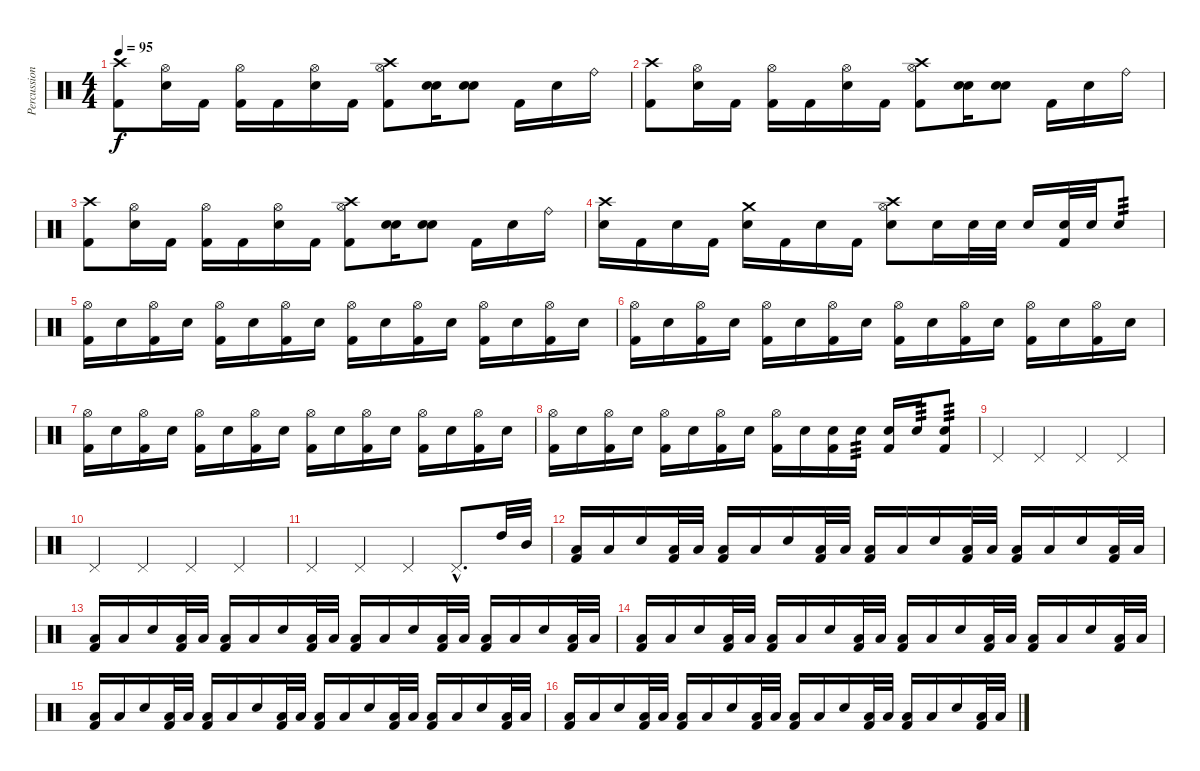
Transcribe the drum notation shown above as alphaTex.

\track ("Percussion" "Percussion") {instrument percussion}
\staff {score}
\articulation defaults
\ts (4 4)
\tempo 95
\clef neutral
\ks c
("Crash high (hit)" "Kick (hit) 2").8{dy f} ("Hi-Hat (open)" "Snare (hit) 2").16 "Kick (hit) 2".16 ("Hi-Hat (open)" "Kick (hit) 2").16 "Kick (hit) 2".16 ("Hi-Hat (open)" "Snare (hit) 2").16 "Kick (hit) 2".16 ("Crash high (hit)" "Hi-Hat (open)" "Kick (hit) 2").8 ("Snare (hit) 2" "Snare (hit) 2").16 ("Snare (hit) 2" "Snare (hit) 2").8 "Kick (hit) 2".16 "Snare (hit) 2".16 "Ride (bell)".16 |
("Crash high (hit)" "Kick (hit) 2").8 ("Hi-Hat (open)" "Snare (hit) 2").16 "Kick (hit) 2".16 ("Hi-Hat (open)" "Kick (hit) 2").16 "Kick (hit) 2".16 ("Hi-Hat (open)" "Snare (hit) 2").16 "Kick (hit) 2".16 ("Crash high (hit)" "Hi-Hat (open)" "Kick (hit) 2").8 ("Snare (hit) 2" "Snare (hit) 2").16 ("Snare (hit) 2" "Snare (hit) 2").8 "Kick (hit) 2".16 "Snare (hit) 2".16 "Ride (bell)".16 |
("Crash high (hit)" "Kick (hit) 2").8 ("Hi-Hat (open)" "Snare (hit) 2").16 "Kick (hit) 2".16 ("Hi-Hat (open)" "Kick (hit) 2").16 "Kick (hit) 2".16 ("Hi-Hat (open)" "Snare (hit) 2").16 "Kick (hit) 2".16 ("Crash high (hit)" "Hi-Hat (open)" "Kick (hit) 2").8 ("Snare (hit) 2" "Snare (hit) 2").16 ("Snare (hit) 2" "Snare (hit) 2").8 "Kick (hit) 2".16 "Snare (hit) 2".16 "Ride (bell)".16 |
("Crash high (hit)" "Snare (hit) 2").16 "Kick (hit) 2".16 "Snare (hit) 2".16 "Kick (hit) 2".16 ("Crash medium (hit)" "Snare (hit) 2").16 "Kick (hit) 2".16 "Snare (hit) 2".16 "Kick (hit) 2".16 ("Crash high (hit)" "Hi-Hat (open)" "Snare (hit) 2").8 "Snare (hit) 2".16 "Snare (hit) 2".32 "Snare (hit) 2".32 "Snare (hit) 2".16 ("Snare (hit) 2" "Kick (hit) 2").32 "Snare (hit) 2".32 "Snare (hit) 2".8{tp 3} |
("Hi-Hat (open)" "Kick (hit) 2").16 "Snare (hit) 2".16 ("Hi-Hat (open)" "Kick (hit) 2").16 "Snare (hit) 2".16 ("Hi-Hat (open)" "Kick (hit) 2").16 "Snare (hit) 2".16 ("Hi-Hat (open)" "Kick (hit) 2").16 "Snare (hit) 2".16 ("Hi-Hat (open)" "Kick (hit) 2").16 "Snare (hit) 2".16 ("Hi-Hat (open)" "Kick (hit) 2").16 "Snare (hit) 2".16 ("Hi-Hat (open)" "Kick (hit) 2").16 "Snare (hit) 2".16 ("Hi-Hat (open)" "Kick (hit) 2").16 "Snare (hit) 2".16 |
("Hi-Hat (open)" "Kick (hit) 2").16 "Snare (hit) 2".16 ("Hi-Hat (open)" "Kick (hit) 2").16 "Snare (hit) 2".16 ("Hi-Hat (open)" "Kick (hit) 2").16 "Snare (hit) 2".16 ("Hi-Hat (open)" "Kick (hit) 2").16 "Snare (hit) 2".16 ("Hi-Hat (open)" "Kick (hit) 2").16 "Snare (hit) 2".16 ("Hi-Hat (open)" "Kick (hit) 2").16 "Snare (hit) 2".16 ("Hi-Hat (open)" "Kick (hit) 2").16 "Snare (hit) 2".16 ("Hi-Hat (open)" "Kick (hit) 2").16 "Snare (hit) 2".16 |
("Hi-Hat (open)" "Kick (hit) 2").16 "Snare (hit) 2".16 ("Hi-Hat (open)" "Kick (hit) 2").16 "Snare (hit) 2".16 ("Hi-Hat (open)" "Kick (hit) 2").16 "Snare (hit) 2".16 ("Hi-Hat (open)" "Kick (hit) 2").16 "Snare (hit) 2".16 ("Hi-Hat (open)" "Kick (hit) 2").16 "Snare (hit) 2".16 ("Hi-Hat (open)" "Kick (hit) 2").16 "Snare (hit) 2".16 ("Hi-Hat (open)" "Kick (hit) 2").16 "Snare (hit) 2".16 ("Hi-Hat (open)" "Kick (hit) 2").16 "Snare (hit) 2".16 |
("Hi-Hat (open)" "Kick (hit) 2").16 "Snare (hit) 2".16 ("Hi-Hat (open)" "Kick (hit) 2").16 "Snare (hit) 2".16 ("Hi-Hat (open)" "Kick (hit) 2").16 "Snare (hit) 2".16 ("Hi-Hat (open)" "Kick (hit) 2").16 "Snare (hit) 2".16 ("Hi-Hat (open)" "Kick (hit) 2").16 "Snare (hit) 2".16 ("Snare (hit) 2" "Kick (hit) 2").16 "Snare (hit) 2".16{tp 3} ("Snare (hit) 2" "Kick (hit) 2").16 "Snare (hit) 2".16{tp 3} ("Snare (hit) 2" "Kick (hit) 2").8{tp 3} |
"Pedal Hi-Hat (hit)".4 "Pedal Hi-Hat (hit)".4 "Pedal Hi-Hat (hit)".4 "Pedal Hi-Hat (hit)".4 |
"Pedal Hi-Hat (hit)".4 "Pedal Hi-Hat (hit)".4 "Pedal Hi-Hat (hit)".4 "Pedal Hi-Hat (hit)".4 |
"Pedal Hi-Hat (hit)".4 "Pedal Hi-Hat (hit)".4 "Pedal Hi-Hat (hit)".4 "Pedal Hi-Hat (hit)"{hac}.8{d} "High Tom (hit)".32 "Mid Tom (hit)".32 |
("Low Floor Tom (hit)" "Kick (hit) 2").16 "Low Floor Tom (hit)".16 "Snare (hit) 2".16 ("Low Floor Tom (hit)" "Kick (hit) 2").32 "Low Floor Tom (hit)".32 ("Low Floor Tom (hit)" "Kick (hit) 2").16 "Low Floor Tom (hit)".16 "Snare (hit) 2".16 ("Low Floor Tom (hit)" "Kick (hit) 2").32 "Low Floor Tom (hit)".32 ("Low Floor Tom (hit)" "Kick (hit) 2").16 "Low Floor Tom (hit)".16 "Snare (hit) 2".16 ("Low Floor Tom (hit)" "Kick (hit) 2").32 "Low Floor Tom (hit)".32 ("Low Floor Tom (hit)" "Kick (hit) 2").16 "Low Floor Tom (hit)".16 "Snare (hit) 2".16 ("Low Floor Tom (hit)" "Kick (hit) 2").32 "Low Floor Tom (hit)".32 |
("Low Floor Tom (hit)" "Kick (hit) 2").16 "Low Floor Tom (hit)".16 "Snare (hit) 2".16 ("Low Floor Tom (hit)" "Kick (hit) 2").32 "Low Floor Tom (hit)".32 ("Low Floor Tom (hit)" "Kick (hit) 2").16 "Low Floor Tom (hit)".16 "Snare (hit) 2".16 ("Low Floor Tom (hit)" "Kick (hit) 2").32 "Low Floor Tom (hit)".32 ("Low Floor Tom (hit)" "Kick (hit) 2").16 "Low Floor Tom (hit)".16 "Snare (hit) 2".16 ("Low Floor Tom (hit)" "Kick (hit) 2").32 "Low Floor Tom (hit)".32 ("Low Floor Tom (hit)" "Kick (hit) 2").16 "Low Floor Tom (hit)".16 "Snare (hit) 2".16 ("Low Floor Tom (hit)" "Kick (hit) 2").32 "Low Floor Tom (hit)".32 |
("Low Floor Tom (hit)" "Kick (hit) 2").16 "Low Floor Tom (hit)".16 "Snare (hit) 2".16 ("Low Floor Tom (hit)" "Kick (hit) 2").32 "Low Floor Tom (hit)".32 ("Low Floor Tom (hit)" "Kick (hit) 2").16 "Low Floor Tom (hit)".16 "Snare (hit) 2".16 ("Low Floor Tom (hit)" "Kick (hit) 2").32 "Low Floor Tom (hit)".32 ("Low Floor Tom (hit)" "Kick (hit) 2").16 "Low Floor Tom (hit)".16 "Snare (hit) 2".16 ("Low Floor Tom (hit)" "Kick (hit) 2").32 "Low Floor Tom (hit)".32 ("Low Floor Tom (hit)" "Kick (hit) 2").16 "Low Floor Tom (hit)".16 "Snare (hit) 2".16 ("Low Floor Tom (hit)" "Kick (hit) 2").32 "Low Floor Tom (hit)".32 |
("Low Floor Tom (hit)" "Kick (hit) 2").16 "Low Floor Tom (hit)".16 "Snare (hit) 2".16 ("Low Floor Tom (hit)" "Kick (hit) 2").32 "Low Floor Tom (hit)".32 ("Low Floor Tom (hit)" "Kick (hit) 2").16 "Low Floor Tom (hit)".16 "Snare (hit) 2".16 ("Low Floor Tom (hit)" "Kick (hit) 2").32 "Low Floor Tom (hit)".32 ("Low Floor Tom (hit)" "Kick (hit) 2").16 "Low Floor Tom (hit)".16 "Snare (hit) 2".16 ("Low Floor Tom (hit)" "Kick (hit) 2").32 "Low Floor Tom (hit)".32 ("Low Floor Tom (hit)" "Kick (hit) 2").16 "Low Floor Tom (hit)".16 "Snare (hit) 2".16 ("Low Floor Tom (hit)" "Kick (hit) 2").32 "Low Floor Tom (hit)".32 |
("Low Floor Tom (hit)" "Kick (hit) 2").16 "Low Floor Tom (hit)".16 "Snare (hit) 2".16 ("Low Floor Tom (hit)" "Kick (hit) 2").32 "Low Floor Tom (hit)".32 ("Low Floor Tom (hit)" "Kick (hit) 2").16 "Low Floor Tom (hit)".16 "Snare (hit) 2".16 ("Low Floor Tom (hit)" "Kick (hit) 2").32 "Low Floor Tom (hit)".32 ("Low Floor Tom (hit)" "Kick (hit) 2").16 "Low Floor Tom (hit)".16 "Snare (hit) 2".16 ("Low Floor Tom (hit)" "Kick (hit) 2").32 "Low Floor Tom (hit)".32 ("Low Floor Tom (hit)" "Kick (hit) 2").16 "Low Floor Tom (hit)".16 "Snare (hit) 2".16 ("Low Floor Tom (hit)" "Kick (hit) 2").32 "Low Floor Tom (hit)".32
